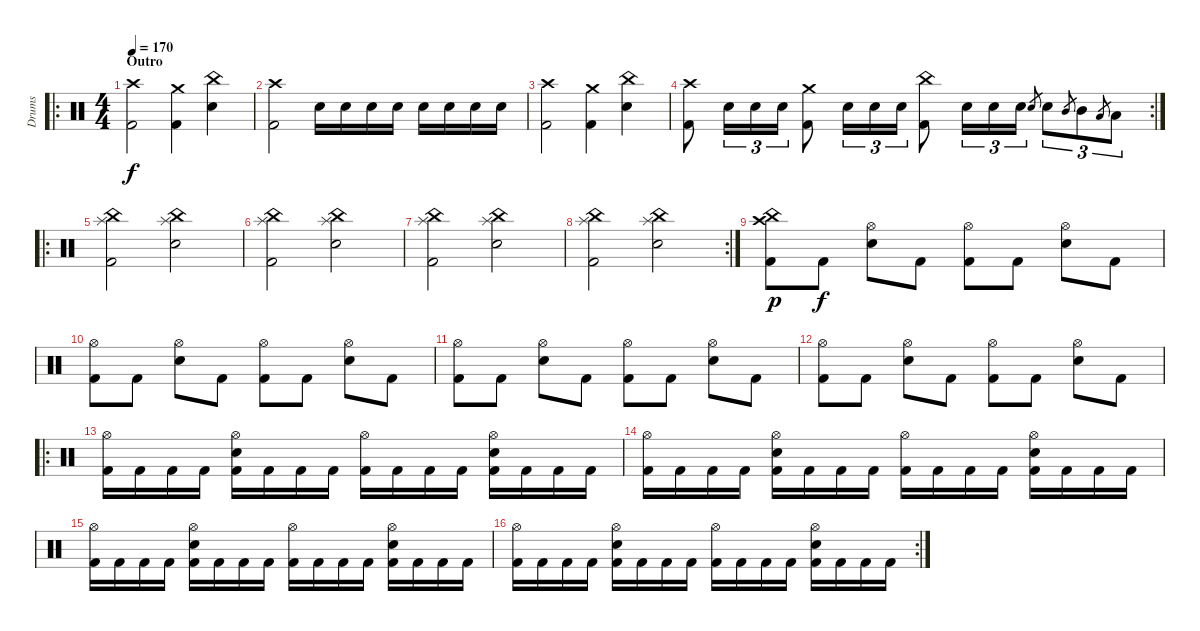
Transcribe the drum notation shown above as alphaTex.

\track ("Drums" "Drums") {instrument percussion}
\staff {score}
\articulation defaults
\ro
\ts (4 4)
\section ("" "Outro")
\tempo 170
\clef neutral
\ks c
("Crash high (hit)" "Kick (hit) 2").2{dy f} ("Crash medium (hit)" "Kick (hit) 2").4 ("China (hit)" "Electric Snare (hit)").4 |
("Crash high (hit)" "Kick (hit) 2").2 "Electric Snare (hit)".16 "Electric Snare (hit)".16 "Electric Snare (hit)".16 "Electric Snare (hit)".16 "Electric Snare (hit)".16 "Electric Snare (hit)".16 "Electric Snare (hit)".16 "Electric Snare (hit)".16 |
("Crash high (hit)" "Kick (hit) 2").2 ("Crash medium (hit)" "Kick (hit) 2").4 ("China (hit)" "Electric Snare (hit)").4 |
\rc 2
("Crash high (hit)" "Kick (hit) 2").8 "Electric Snare (hit)".16{tu (3 2)} "Electric Snare (hit)".16{tu (3 2)} "Electric Snare (hit)".16{tu (3 2)} ("Crash medium (hit)" "Kick (hit) 2").8 "Electric Snare (hit)".16{tu (3 2)} "Electric Snare (hit)".16{tu (3 2)} "Electric Snare (hit)".16{tu (3 2)} ("China (hit)" "Kick (hit) 2").8 "Electric Snare (hit)".16{tu (3 2)} "Electric Snare (hit)".16{tu (3 2)} "Electric Snare (hit)".16{tu (3 2)} "Electric Snare (hit)".8{gr} "Electric Snare (hit)".8{tu (3 2)} "Mid Tom (hit)".8{gr} "Mid Tom (hit)".8{tu (3 2)} "Low Tom (hit)".8{gr} "Low Tom (hit)".8{tu (3 2)} |
\ro
("China (hit)" "Splash (hit)" "Kick (hit) 2").2 ("China (hit)" "Splash (hit)" "Electric Snare (hit)").2 |
("China (hit)" "Splash (hit)" "Kick (hit) 2").2 ("China (hit)" "Splash (hit)" "Electric Snare (hit)").2 |
("China (hit)" "Splash (hit)" "Kick (hit) 2").2 ("China (hit)" "Splash (hit)" "Electric Snare (hit)").2 |
\rc 2
("China (hit)" "Splash (hit)" "Kick (hit) 2").2 ("China (hit)" "Splash (hit)" "Electric Snare (hit)").2 |
("Kick (hit) 2" "China (hit)" "Crash high (hit)").8{dy p} "Kick (hit) 2".8{dy f} ("Electric Snare (hit)" "Hi-Hat (open)").8 "Kick (hit) 2".8 ("Kick (hit) 2" "Hi-Hat (open)").8 "Kick (hit) 2".8 ("Electric Snare (hit)" "Hi-Hat (open)").8 "Kick (hit) 2".8 |
("Kick (hit) 2" "Hi-Hat (open)").8 "Kick (hit) 2".8 ("Electric Snare (hit)" "Hi-Hat (open)").8 "Kick (hit) 2".8 ("Kick (hit) 2" "Hi-Hat (open)").8 "Kick (hit) 2".8 ("Electric Snare (hit)" "Hi-Hat (open)").8 "Kick (hit) 2".8 |
("Kick (hit) 2" "Hi-Hat (open)").8 "Kick (hit) 2".8 ("Electric Snare (hit)" "Hi-Hat (open)").8 "Kick (hit) 2".8 ("Kick (hit) 2" "Hi-Hat (open)").8 "Kick (hit) 2".8 ("Electric Snare (hit)" "Hi-Hat (open)").8 "Kick (hit) 2".8 |
("Kick (hit) 2" "Hi-Hat (open)").8 "Kick (hit) 2".8 ("Electric Snare (hit)" "Hi-Hat (open)").8 "Kick (hit) 2".8 ("Kick (hit) 2" "Hi-Hat (open)").8 "Kick (hit) 2".8 ("Electric Snare (hit)" "Hi-Hat (open)").8 "Kick (hit) 2".8 |
\ro
("Kick (hit) 2" "Hi-Hat (open)").16 "Kick (hit) 2".16 "Kick (hit) 2".16 "Kick (hit) 2".16 ("Kick (hit) 2" "Hi-Hat (open)" "Electric Snare (hit)").16 "Kick (hit) 2".16 "Kick (hit) 2".16 "Kick (hit) 2".16 ("Kick (hit) 2" "Hi-Hat (open)").16 "Kick (hit) 2".16 "Kick (hit) 2".16 "Kick (hit) 2".16 ("Kick (hit) 2" "Hi-Hat (open)" "Electric Snare (hit)").16 "Kick (hit) 2".16 "Kick (hit) 2".16 "Kick (hit) 2".16 |
("Kick (hit) 2" "Hi-Hat (open)").16 "Kick (hit) 2".16 "Kick (hit) 2".16 "Kick (hit) 2".16 ("Kick (hit) 2" "Hi-Hat (open)" "Electric Snare (hit)").16 "Kick (hit) 2".16 "Kick (hit) 2".16 "Kick (hit) 2".16 ("Kick (hit) 2" "Hi-Hat (open)").16 "Kick (hit) 2".16 "Kick (hit) 2".16 "Kick (hit) 2".16 ("Kick (hit) 2" "Hi-Hat (open)" "Electric Snare (hit)").16 "Kick (hit) 2".16 "Kick (hit) 2".16 "Kick (hit) 2".16 |
("Kick (hit) 2" "Hi-Hat (open)").16 "Kick (hit) 2".16 "Kick (hit) 2".16 "Kick (hit) 2".16 ("Kick (hit) 2" "Hi-Hat (open)" "Electric Snare (hit)").16 "Kick (hit) 2".16 "Kick (hit) 2".16 "Kick (hit) 2".16 ("Kick (hit) 2" "Hi-Hat (open)").16 "Kick (hit) 2".16 "Kick (hit) 2".16 "Kick (hit) 2".16 ("Kick (hit) 2" "Hi-Hat (open)" "Electric Snare (hit)").16 "Kick (hit) 2".16 "Kick (hit) 2".16 "Kick (hit) 2".16 |
\rc 2
("Kick (hit) 2" "Hi-Hat (open)").16 "Kick (hit) 2".16 "Kick (hit) 2".16 "Kick (hit) 2".16 ("Kick (hit) 2" "Hi-Hat (open)" "Electric Snare (hit)").16 "Kick (hit) 2".16 "Kick (hit) 2".16 "Kick (hit) 2".16 ("Kick (hit) 2" "Hi-Hat (open)").16 "Kick (hit) 2".16 "Kick (hit) 2".16 "Kick (hit) 2".16 ("Kick (hit) 2" "Hi-Hat (open)" "Electric Snare (hit)").16 "Kick (hit) 2".16 "Kick (hit) 2".16 "Kick (hit) 2".16
